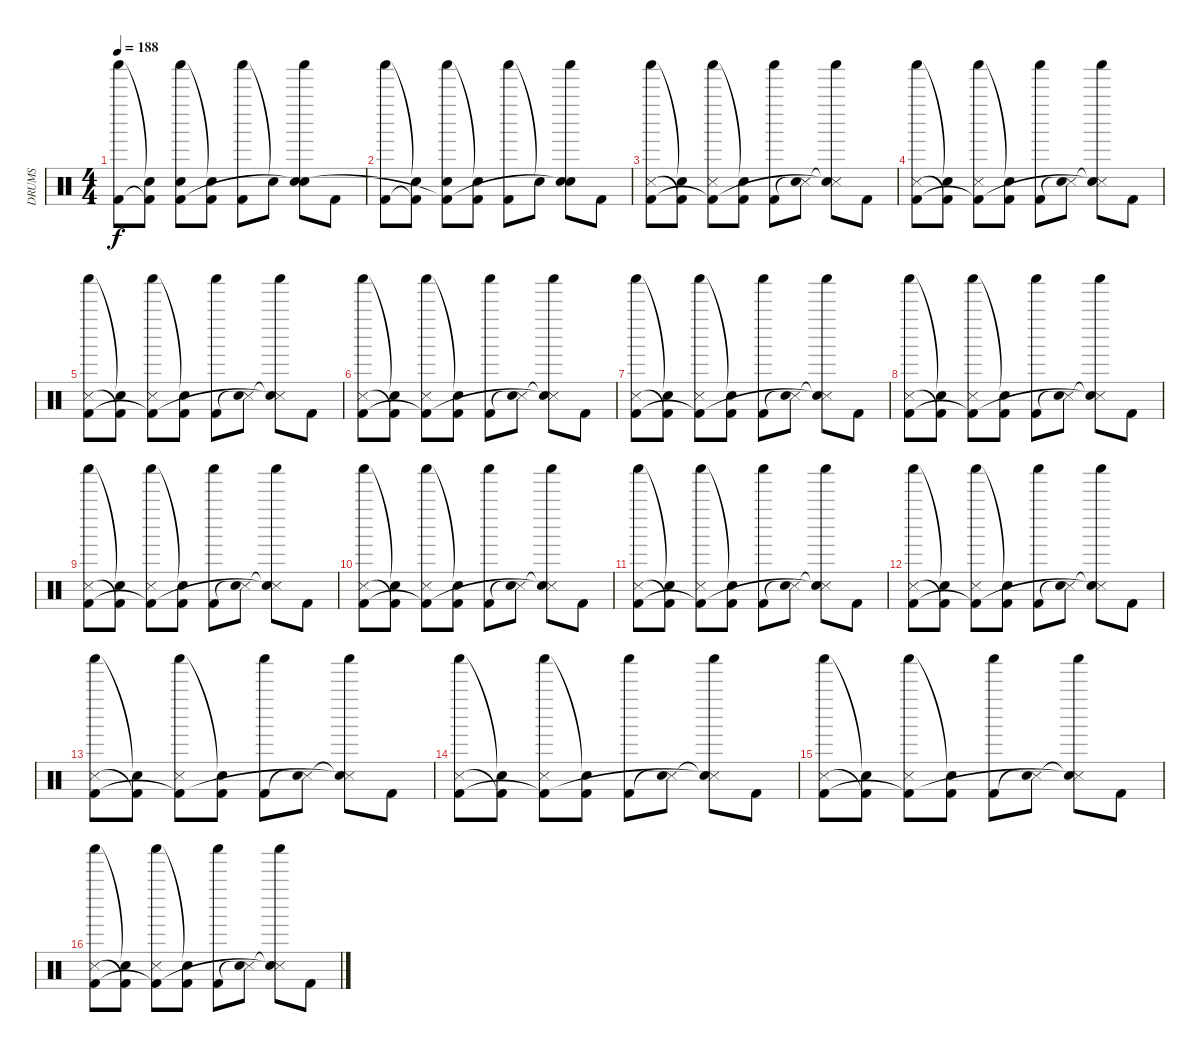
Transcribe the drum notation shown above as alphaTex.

\track ("DRUMS" "DRUMS") {instrument percussion}
\staff {score}
\articulation defaults
\ts (4 4)
\tempo 188
\clef neutral
\ks c
("Shaker (hit)" "Kick (hit) 2").8{dy f} ("Snare (hit)"{t} "Kick (hit) 2"{t}).8 ("Shaker (hit)" "Snare (hit) 2" "Kick (hit) 2"{t}).8 ("Snare (hit)"{t} "Kick (hit) 2").8 ("Shaker (hit)" "Kick (hit) 2").8 "Snare (hit)"{t}.8 ("Shaker (hit)" "Snare (hit) 2" "Snare (hit)"{t}).8 "Kick (hit) 2".8 |
("Shaker (hit)" "Kick (hit) 2").8 ("Snare (hit)"{t} "Kick (hit) 2"{t}).8 ("Shaker (hit)" "Snare (hit) 2" "Kick (hit) 2"{t}).8 ("Snare (hit)"{t} "Kick (hit) 2").8 ("Shaker (hit)" "Kick (hit) 2").8 "Snare (hit)"{t}.8 ("Shaker (hit)" "Snare (hit) 2" "Snare (hit)"{t}).8 "Kick (hit) 2".8 |
("Shaker (hit)" "Snare (side stick) 3" "Kick (hit) 2").8 ("Snare (hit)"{t} "Kick (hit) 2"{t}).8 ("Shaker (hit)" "Snare (side stick) 3" "Kick (hit) 2"{t}).8 ("Snare (hit)"{t} "Kick (hit) 2").8 ("Shaker (hit)" "Kick (hit) 2").8 ("Snare (side stick) 3" "Snare (hit)"{t}).8 ("Shaker (hit)" "Snare (side stick) 3"{t} "Snare (hit)"{t}).8 "Kick (hit) 2".8 |
("Shaker (hit)" "Snare (side stick) 3" "Kick (hit) 2").8 ("Snare (hit)"{t} "Kick (hit) 2"{t}).8 ("Shaker (hit)" "Snare (side stick) 3" "Kick (hit) 2"{t}).8 ("Snare (hit)"{t} "Kick (hit) 2").8 ("Shaker (hit)" "Kick (hit) 2").8 ("Snare (side stick) 3" "Snare (hit)"{t}).8 ("Shaker (hit)" "Snare (side stick) 3"{t} "Snare (hit)"{t}).8 "Kick (hit) 2".8 |
("Shaker (hit)" "Snare (side stick) 3" "Kick (hit) 2").8 ("Snare (hit)"{t} "Kick (hit) 2"{t}).8 ("Shaker (hit)" "Snare (side stick) 3" "Kick (hit) 2"{t}).8 ("Snare (hit)"{t} "Kick (hit) 2").8 ("Shaker (hit)" "Kick (hit) 2").8 ("Snare (side stick) 3" "Snare (hit)"{t}).8 ("Shaker (hit)" "Snare (side stick) 3"{t} "Snare (hit)"{t}).8 "Kick (hit) 2".8 |
("Shaker (hit)" "Snare (side stick) 3" "Kick (hit) 2").8 ("Snare (hit)"{t} "Kick (hit) 2"{t}).8 ("Shaker (hit)" "Snare (side stick) 3" "Kick (hit) 2"{t}).8 ("Snare (hit)"{t} "Kick (hit) 2").8 ("Shaker (hit)" "Kick (hit) 2").8 ("Snare (side stick) 3" "Snare (hit)"{t}).8 ("Shaker (hit)" "Snare (side stick) 3"{t} "Snare (hit)"{t}).8 "Kick (hit) 2".8 |
("Shaker (hit)" "Snare (side stick) 3" "Kick (hit) 2").8 ("Snare (hit)"{t} "Kick (hit) 2"{t}).8 ("Shaker (hit)" "Snare (side stick) 3" "Kick (hit) 2"{t}).8 ("Snare (hit)"{t} "Kick (hit) 2").8 ("Shaker (hit)" "Kick (hit) 2").8 ("Snare (side stick) 3" "Snare (hit)"{t}).8 ("Shaker (hit)" "Snare (side stick) 3"{t} "Snare (hit)"{t}).8 "Kick (hit) 2".8 |
("Shaker (hit)" "Snare (side stick) 3" "Kick (hit) 2").8 ("Snare (hit)"{t} "Kick (hit) 2"{t}).8 ("Shaker (hit)" "Snare (side stick) 3" "Kick (hit) 2"{t}).8 ("Snare (hit)"{t} "Kick (hit) 2").8 ("Shaker (hit)" "Kick (hit) 2").8 ("Snare (side stick) 3" "Snare (hit)"{t}).8 ("Shaker (hit)" "Snare (side stick) 3"{t} "Snare (hit)"{t}).8 "Kick (hit) 2".8 |
("Shaker (hit)" "Snare (side stick) 3" "Kick (hit) 2").8 ("Snare (hit)"{t} "Kick (hit) 2"{t}).8 ("Shaker (hit)" "Snare (side stick) 3" "Kick (hit) 2"{t}).8 ("Snare (hit)"{t} "Kick (hit) 2").8 ("Shaker (hit)" "Kick (hit) 2").8 ("Snare (side stick) 3" "Snare (hit)"{t}).8 ("Shaker (hit)" "Snare (side stick) 3"{t} "Snare (hit)"{t}).8 "Kick (hit) 2".8 |
("Shaker (hit)" "Snare (side stick) 3" "Kick (hit) 2").8 ("Snare (hit)"{t} "Kick (hit) 2"{t}).8 ("Shaker (hit)" "Snare (side stick) 3" "Kick (hit) 2"{t}).8 ("Snare (hit)"{t} "Kick (hit) 2").8 ("Shaker (hit)" "Kick (hit) 2").8 ("Snare (side stick) 3" "Snare (hit)"{t}).8 ("Shaker (hit)" "Snare (side stick) 3"{t} "Snare (hit)"{t}).8 "Kick (hit) 2".8 |
("Shaker (hit)" "Snare (side stick) 3" "Kick (hit) 2").8 ("Snare (hit)"{t} "Kick (hit) 2"{t}).8 ("Shaker (hit)" "Snare (side stick) 3" "Kick (hit) 2"{t}).8 ("Snare (hit)"{t} "Kick (hit) 2").8 ("Shaker (hit)" "Kick (hit) 2").8 ("Snare (side stick) 3" "Snare (hit)"{t}).8 ("Shaker (hit)" "Snare (side stick) 3"{t} "Snare (hit)"{t}).8 "Kick (hit) 2".8 |
("Shaker (hit)" "Snare (side stick) 3" "Kick (hit) 2").8 ("Snare (hit)"{t} "Kick (hit) 2"{t}).8 ("Shaker (hit)" "Snare (side stick) 3" "Kick (hit) 2"{t}).8 ("Snare (hit)"{t} "Kick (hit) 2").8 ("Shaker (hit)" "Kick (hit) 2").8 ("Snare (side stick) 3" "Snare (hit)"{t}).8 ("Shaker (hit)" "Snare (side stick) 3"{t} "Snare (hit)"{t}).8 "Kick (hit) 2".8 |
("Shaker (hit)" "Snare (side stick) 3" "Kick (hit) 2").8 ("Snare (hit)"{t} "Kick (hit) 2"{t}).8 ("Shaker (hit)" "Snare (side stick) 3" "Kick (hit) 2"{t}).8 ("Snare (hit)"{t} "Kick (hit) 2").8 ("Shaker (hit)" "Kick (hit) 2").8 ("Snare (side stick) 3" "Snare (hit)"{t}).8 ("Shaker (hit)" "Snare (side stick) 3"{t} "Snare (hit)"{t}).8 "Kick (hit) 2".8 |
("Shaker (hit)" "Snare (side stick) 3" "Kick (hit) 2").8 ("Snare (hit)"{t} "Kick (hit) 2"{t}).8 ("Shaker (hit)" "Snare (side stick) 3" "Kick (hit) 2"{t}).8 ("Snare (hit)"{t} "Kick (hit) 2").8 ("Shaker (hit)" "Kick (hit) 2").8 ("Snare (side stick) 3" "Snare (hit)"{t}).8 ("Shaker (hit)" "Snare (side stick) 3"{t} "Snare (hit)"{t}).8 "Kick (hit) 2".8 |
("Shaker (hit)" "Snare (side stick) 3" "Kick (hit) 2").8 ("Snare (hit)"{t} "Kick (hit) 2"{t}).8 ("Shaker (hit)" "Snare (side stick) 3" "Kick (hit) 2"{t}).8 ("Snare (hit)"{t} "Kick (hit) 2").8 ("Shaker (hit)" "Kick (hit) 2").8 ("Snare (side stick) 3" "Snare (hit)"{t}).8 ("Shaker (hit)" "Snare (side stick) 3"{t} "Snare (hit)"{t}).8 "Kick (hit) 2".8 |
("Shaker (hit)" "Snare (side stick) 3" "Kick (hit) 2").8 ("Snare (hit)"{t} "Kick (hit) 2"{t}).8 ("Shaker (hit)" "Snare (side stick) 3" "Kick (hit) 2"{t}).8 ("Snare (hit)"{t} "Kick (hit) 2").8 ("Shaker (hit)" "Kick (hit) 2").8 ("Snare (side stick) 3" "Snare (hit)"{t}).8 ("Shaker (hit)" "Snare (side stick) 3"{t} "Snare (hit)"{t}).8 "Kick (hit) 2".8
